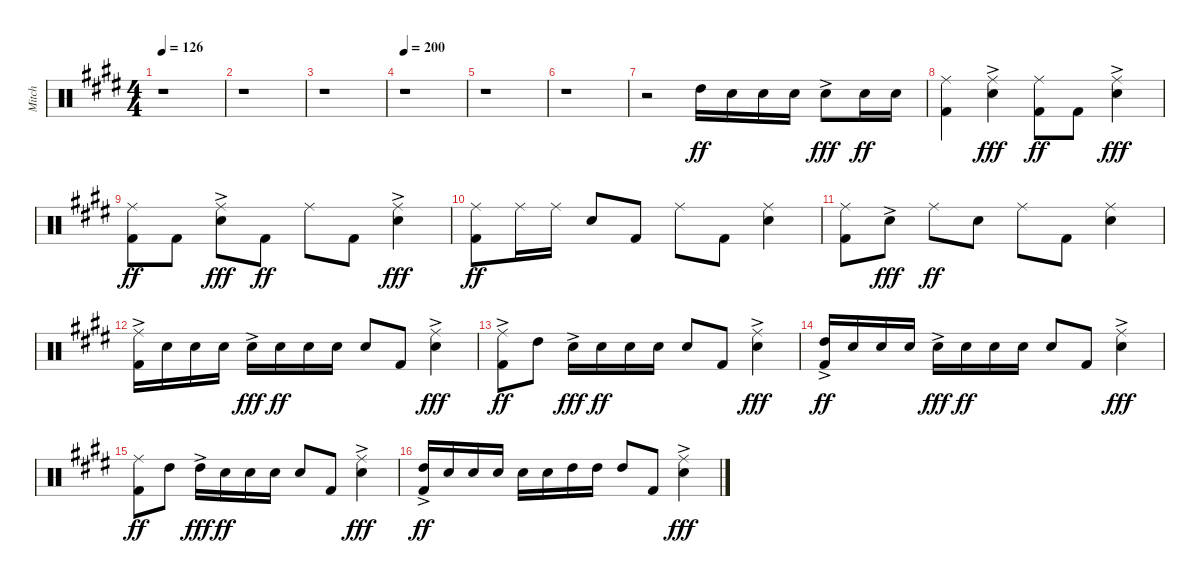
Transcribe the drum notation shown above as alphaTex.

\track ("Mitch" "Mitch") {instrument percussion}
\staff {score}
\articulation defaults
\ts (4 4)
\tempo 126
\clef neutral
\ks e
r.1{dy ff} |
r.1 |
r.1 |
\tempo 200
r.1 |
r.1 |
r.1 |
r.2 "High Tom (hit)".16 "Snare (hit) 2".16 "Snare (hit) 2".16 "Snare (hit) 2".16 "Snare (hit) 2"{ac}.8{dy fff} "Snare (hit) 2".16{dy ff} "Snare (hit) 2".16 |
("Ride (middle)" "Kick (hit) 2").4 ("Ride (middle)" "Snare (hit) 2"{ac}).4{dy fff} ("Ride (middle)" "Kick (hit) 2").8{dy ff} "Kick (hit) 2".8 ("Ride (middle)" "Snare (hit) 2"{ac}).4{dy fff} |
("Ride (middle)" "Kick (hit) 2").8{dy ff} "Kick (hit) 2".8 ("Ride (middle)" "Snare (hit) 2"{ac}).8{dy fff} "Kick (hit) 2".8{dy ff} "Ride (middle)".8 "Kick (hit) 2".8 ("Ride (middle)" "Snare (hit) 2"{ac}).4{dy fff} |
("Ride (middle)" "Kick (hit) 2").8{dy ff} "Ride (middle)".16 "Ride (middle)".16 "Snare (hit) 2".8 "Kick (hit) 2".8 "Ride (middle)".8 "Kick (hit) 2".8 ("Ride (middle)" "Snare (hit) 2").4 |
("Ride (middle)" "Kick (hit) 2").8 "Snare (hit) 2"{ac}.8{dy fff} "Ride (middle)".8{dy ff} "Snare (hit) 2".8 "Ride (middle)".8 "Kick (hit) 2".8 ("Ride (middle)" "Snare (hit) 2").4 |
("Ride (middle)"{ac} "Kick (hit) 2").16 "Snare (hit) 2".16 "Snare (hit) 2".16 "Snare (hit) 2".16 "Snare (hit) 2"{ac}.16{dy fff} "Snare (hit) 2".16{dy ff} "Snare (hit) 2".16 "Snare (hit) 2".16 "Snare (hit) 2".8 "Kick (hit) 2".8 ("Ride (middle)" "Snare (hit) 2"{ac}).4{dy fff} |
("Ride (middle)"{ac} "Kick (hit) 2").8{dy ff} "High Tom (hit)".8 "Snare (hit) 2"{ac}.16{dy fff} "Snare (hit) 2".16{dy ff} "Snare (hit) 2".16 "Snare (hit) 2".16 "Snare (hit) 2".8 "Kick (hit) 2".8 ("Ride (middle)" "Snare (hit) 2"{ac}).4{dy fff} |
("High Tom (hit)"{ac} "Kick (hit) 2").16{dy ff} "Snare (hit) 2".16 "Snare (hit) 2".16 "Snare (hit) 2".16 "Snare (hit) 2"{ac}.16{dy fff} "Snare (hit) 2".16{dy ff} "Snare (hit) 2".16 "Snare (hit) 2".16 "Snare (hit) 2".8 "Kick (hit) 2".8 ("Ride (middle)" "Snare (hit) 2"{ac}).4{dy fff} |
("Ride (middle)" "Kick (hit) 2").8{dy ff} "High Tom (hit)".8 "High Tom (hit)"{ac}.16{dy fff} "Snare (hit) 2".16{dy ff} "Snare (hit) 2".16 "Snare (hit) 2".16 "Snare (hit) 2".8 "Kick (hit) 2".8 ("Ride (middle)" "Snare (hit) 2"{ac}).4{dy fff} |
("High Tom (hit)"{ac} "Kick (hit) 2").16{dy ff} "Snare (hit) 2".16 "Snare (hit) 2".16 "Snare (hit) 2".16 "Snare (hit) 2".16 "Snare (hit) 2".16 "High Tom (hit)".16 "High Tom (hit)".16 "High Tom (hit)".8 "Kick (hit) 2".8 ("Ride (middle)" "Snare (hit) 2"{ac}).4{dy fff}
